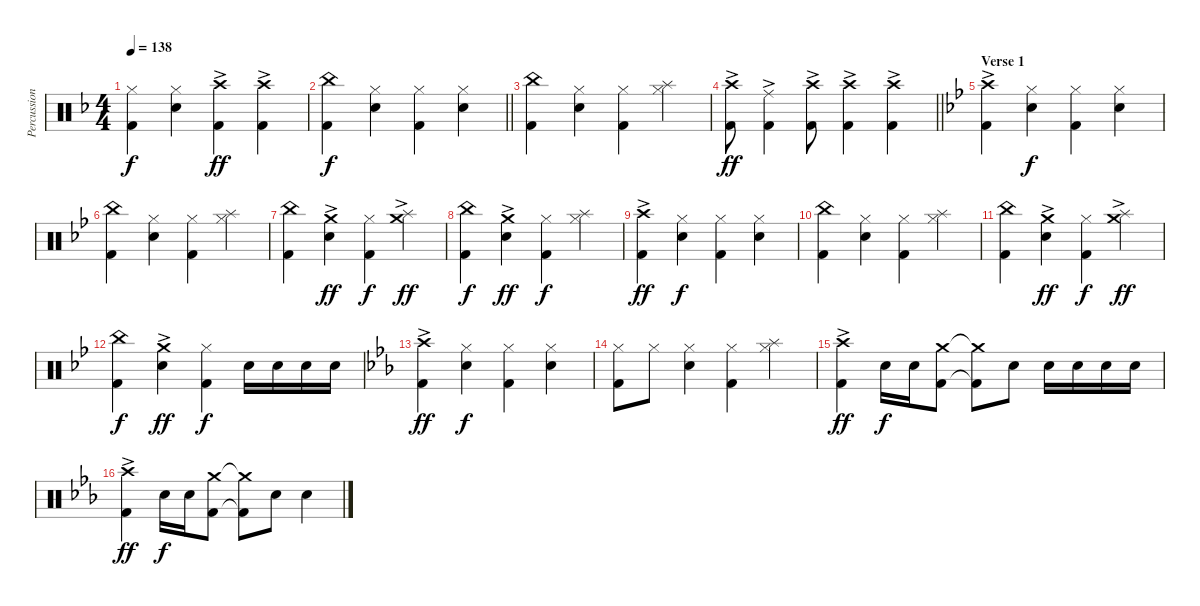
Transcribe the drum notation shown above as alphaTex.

\track ("Percussion" "Percussion") {instrument percussion}
\staff {score}
\articulation defaults
\ts (4 4)
\tempo 138
\clef neutral
\ks f
("Hi-Hat (closed)" "Kick (hit) 2").4{dy f} ("Hi-Hat (closed)" "Snare (hit) 2").4 ("Crash high (hit)"{ac} "Kick (hit) 2"{ac}).4{dy ff} ("Crash high (hit)"{ac} "Kick (hit) 2"{ac}).4 |
\barLineRight lightlight
("China (hit)" "Kick (hit) 2").4{dy f} ("Hi-Hat (closed)" "Snare (hit) 2").4 ("Hi-Hat (closed)" "Kick (hit) 2").4 ("Hi-Hat (closed)" "Snare (hit) 2").4 |
("China (hit)" "Kick (hit) 2").4 ("Hi-Hat (closed)" "Snare (hit) 2").4 ("Hi-Hat (closed)" "Kick (hit) 2").4 ("Hi-Hat (closed)" "Splash (hit)").4 |
\barLineRight lightlight
("Crash high (hit)"{ac} "Kick (hit) 2"{ac}).8{dy ff} ("Ride (middle)"{ac} "Kick (hit) 2"{ac}).4 ("Crash high (hit)"{ac} "Kick (hit) 2"{ac}).8 ("Crash high (hit)"{ac} "Kick (hit) 2"{ac}).4 ("Crash high (hit)"{ac} "Kick (hit) 2"{ac}).4 |
\section ("" "Verse 1")
\ks bb
("Crash high (hit)"{ac} "Kick (hit) 2").4 ("Hi-Hat (closed)" "Snare (hit) 2").4{dy f} ("Hi-Hat (closed)" "Kick (hit) 2").4 ("Hi-Hat (closed)" "Snare (hit) 2").4 |
("China (hit)" "Kick (hit) 2").4 ("Hi-Hat (closed)" "Snare (hit) 2").4 ("Hi-Hat (closed)" "Kick (hit) 2").4 ("Hi-Hat (closed)" "Splash (hit)").4 |
("China (hit)" "Kick (hit) 2").4 ("Crash medium (hit)"{ac} "Snare (hit) 2").4{dy ff} ("Hi-Hat (closed)" "Kick (hit) 2").4{dy f} ("Crash medium (hit)" "Splash (hit)"{ac}).4{dy ff} |
("China (hit)" "Kick (hit) 2").4{dy f} ("Crash medium (hit)"{ac} "Snare (hit) 2").4{dy ff} ("Hi-Hat (closed)" "Kick (hit) 2").4{dy f} ("Hi-Hat (closed)" "Splash (hit)").4 |
("Crash high (hit)"{ac} "Kick (hit) 2").4{dy ff} ("Hi-Hat (closed)" "Snare (hit) 2").4{dy f} ("Hi-Hat (closed)" "Kick (hit) 2").4 ("Hi-Hat (closed)" "Snare (hit) 2").4 |
("China (hit)" "Kick (hit) 2").4 ("Hi-Hat (closed)" "Snare (hit) 2").4 ("Hi-Hat (closed)" "Kick (hit) 2").4 ("Hi-Hat (closed)" "Splash (hit)").4 |
("China (hit)" "Kick (hit) 2").4 ("Crash medium (hit)"{ac} "Snare (hit) 2").4{dy ff} ("Hi-Hat (closed)" "Kick (hit) 2").4{dy f} ("Crash medium (hit)" "Splash (hit)"{ac}).4{dy ff} |
("China (hit)" "Kick (hit) 2").4{dy f} ("Crash medium (hit)"{ac} "Snare (hit) 2").4{dy ff} ("Hi-Hat (closed)" "Kick (hit) 2").4{dy f} "Snare (hit) 2".16 "Snare (hit) 2".16 "Snare (hit) 2".16 "Snare (hit) 2".16 |
\ks eb
("Crash high (hit)"{ac} "Kick (hit) 2").4{dy ff} ("Hi-Hat (closed)" "Snare (hit) 2").4{dy f} ("Hi-Hat (closed)" "Kick (hit) 2").4 ("Hi-Hat (closed)" "Snare (hit) 2").4 |
("Hi-Hat (closed)" "Kick (hit) 2").8 "Hi-Hat (closed)".8 ("Hi-Hat (closed)" "Snare (hit) 2").4 ("Hi-Hat (closed)" "Kick (hit) 2").4 ("Hi-Hat (closed)" "Splash (hit)").4 |
("Crash high (hit)"{ac} "Kick (hit) 2").4{dy ff} "Snare (hit) 2".16{dy f} "Snare (hit) 2".16 ("Crash medium (hit)" "Kick (hit) 2").8 ("Crash medium (hit)"{t} "Kick (hit) 2"{t}).8 "Snare (hit) 2".8 "Snare (hit) 2".16{beam merge} "Snare (hit) 2".16 "Snare (hit) 2".16{beam merge} "Snare (hit) 2".16 |
("Crash high (hit)"{ac} "Kick (hit) 2").4{dy ff} "Snare (hit) 2".16{dy f} "Snare (hit) 2".16 ("Crash medium (hit)" "Kick (hit) 2").8 ("Crash medium (hit)"{t} "Kick (hit) 2"{t}).8 "Snare (hit) 2".8 "Snare (hit) 2".4
